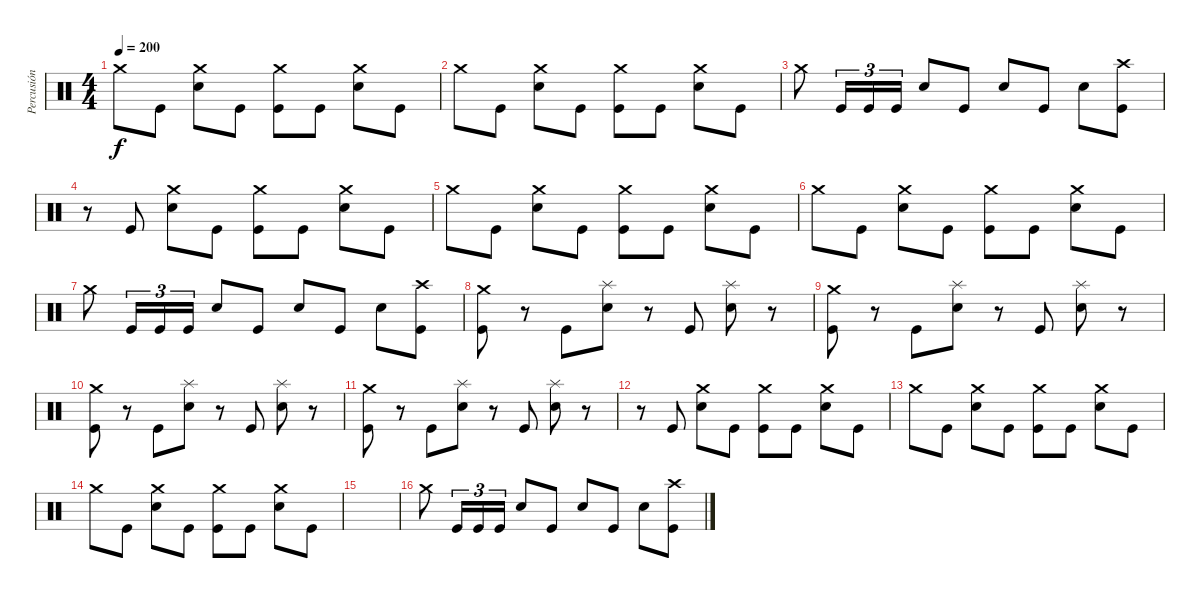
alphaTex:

\track ("Percusión" "Percusión") {instrument percussion}
\staff {score}
\articulation defaults
\ts (4 4)
\tempo 200
\clef neutral
\ks c "Crash medium (hit)".8{dy f} "Kick (hit)".8
("Electric Snare (hit)" "Crash medium (hit)").8 "Kick (hit)".8 ("Crash medium (hit)" "Kick (hit)").8 "Kick (hit)".8 ("Electric Snare (hit)" "Crash medium (hit)").8 "Kick (hit)".8 |
"Crash medium (hit)".8 "Kick (hit)".8 ("Electric Snare (hit)" "Crash medium (hit)").8 "Kick (hit)".8 ("Crash medium (hit)" "Kick (hit)").8 "Kick (hit)".8 ("Electric Snare (hit)" "Crash medium (hit)").8 "Kick (hit)".8 |
"Crash medium (hit)".8 "Kick (hit)".16{tu (3 2)} "Kick (hit)".16{tu (3 2)} "Kick (hit)".16{tu (3 2)} "Electric Snare (hit)".8 "Kick (hit)".8 "Electric Snare (hit)".8 "Kick (hit)".8 "Electric Snare (hit)".8 ("Crash high (hit)" "Kick (hit)").8 |
r.8 "Kick (hit)".8 ("Electric Snare (hit)" "Crash medium (hit)").8 "Kick (hit)".8 ("Crash medium (hit)" "Kick (hit)").8 "Kick (hit)".8 ("Electric Snare (hit)" "Crash medium (hit)").8 "Kick (hit)".8 |
"Crash medium (hit)".8 "Kick (hit)".8 ("Electric Snare (hit)" "Crash medium (hit)").8 "Kick (hit)".8 ("Crash medium (hit)" "Kick (hit)").8 "Kick (hit)".8 ("Electric Snare (hit)" "Crash medium (hit)").8 "Kick (hit)".8 |
"Crash medium (hit)".8 "Kick (hit)".8 ("Electric Snare (hit)" "Crash medium (hit)").8 "Kick (hit)".8 ("Crash medium (hit)" "Kick (hit)").8 "Kick (hit)".8 ("Electric Snare (hit)" "Crash medium (hit)").8 "Kick (hit)".8 |
"Crash medium (hit)".8 "Kick (hit)".16{tu (3 2)} "Kick (hit)".16{tu (3 2)} "Kick (hit)".16{tu (3 2)} "Electric Snare (hit)".8 "Kick (hit)".8 "Electric Snare (hit)".8 "Kick (hit)".8 "Electric Snare (hit)".8 ("Crash high (hit)" "Kick (hit)").8 |
("Crash medium (hit)" "Kick (hit)").8 r.8 "Kick (hit)".8 ("Electric Snare (hit)" "Splash (hit)").8 r.8 "Kick (hit)".8 ("Electric Snare (hit)" "Splash (hit)").8 r.8 |
("Crash medium (hit)" "Kick (hit)").8 r.8 "Kick (hit)".8 ("Electric Snare (hit)" "Splash (hit)").8 r.8 "Kick (hit)".8 ("Electric Snare (hit)" "Splash (hit)").8 r.8 |
("Crash medium (hit)" "Kick (hit)").8 r.8 "Kick (hit)".8 ("Electric Snare (hit)" "Splash (hit)").8 r.8 "Kick (hit)".8 ("Electric Snare (hit)" "Splash (hit)").8 r.8 |
("Crash medium (hit)" "Kick (hit)").8 r.8 "Kick (hit)".8 ("Electric Snare (hit)" "Splash (hit)").8 r.8 "Kick (hit)".8 ("Electric Snare (hit)" "Splash (hit)").8 r.8 |
r.8 "Kick (hit)".8 ("Electric Snare (hit)" "Crash medium (hit)").8 "Kick (hit)".8 ("Crash medium (hit)" "Kick (hit)").8 "Kick (hit)".8 ("Electric Snare (hit)" "Crash medium (hit)").8 "Kick (hit)".8 |
"Crash medium (hit)".8 "Kick (hit)".8 ("Electric Snare (hit)" "Crash medium (hit)").8 "Kick (hit)".8 ("Crash medium (hit)" "Kick (hit)").8 "Kick (hit)".8 ("Electric Snare (hit)" "Crash medium (hit)").8 "Kick (hit)".8 |
"Crash medium (hit)".8 "Kick (hit)".8 ("Electric Snare (hit)" "Crash medium (hit)").8 "Kick (hit)".8 ("Crash medium (hit)" "Kick (hit)").8 "Kick (hit)".8 ("Electric Snare (hit)" "Crash medium (hit)").8 "Kick (hit)".8 |
|
"Crash medium (hit)".8 "Kick (hit)".16{tu (3 2)} "Kick (hit)".16{tu (3 2)} "Kick (hit)".16{tu (3 2)} "Electric Snare (hit)".8 "Kick (hit)".8 "Electric Snare (hit)".8 "Kick (hit)".8 "Electric Snare (hit)".8 ("Crash high (hit)" "Kick (hit)").8
